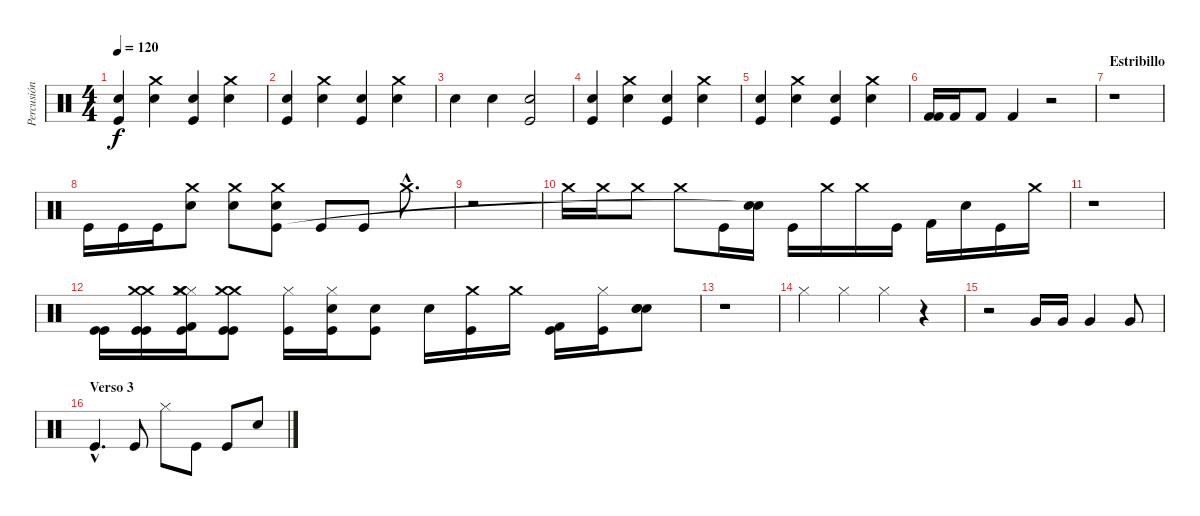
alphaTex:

\track ("Percusión" "Percusión") {instrument percussion}
\staff {score}
\articulation defaults
\ts (4 4)
\tempo 120
\clef neutral
\ks c
("Snare (hit) 2" "Kick (hit)").4{dy f} ("Snare (hit) 2" "Crash medium (hit)").4 ("Snare (hit) 2" "Kick (hit)").4 ("Snare (hit) 2" "Crash medium (hit)").4 |
("Snare (hit) 2" "Kick (hit)").4 ("Snare (hit) 2" "Crash medium (hit)").4 ("Snare (hit) 2" "Kick (hit)").4 ("Snare (hit) 2" "Crash medium (hit)").4 |
"Snare (hit) 2".4 "Snare (hit) 2".4 ("Snare (hit) 2" "Kick (hit)").2 |
("Snare (hit) 2" "Kick (hit)").4 ("Snare (hit) 2" "Crash medium (hit)").4 ("Snare (hit) 2" "Kick (hit)").4 ("Snare (hit) 2" "Crash medium (hit)").4 |
("Snare (hit) 2" "Kick (hit)").4 ("Snare (hit) 2" "Crash medium (hit)").4 ("Snare (hit) 2" "Kick (hit)").4 ("Snare (hit) 2" "Crash medium (hit)").4 |
("Kick (hit) 2" "Kick (hit) 2").16 "Kick (hit) 2".16 "Kick (hit) 2".8 "Kick (hit) 2".4 r.2 |
\section ("" "Estribillo")
r.1 |
"Kick (hit)".16 "Kick (hit)".16 "Kick (hit)".16 ("Crash medium (hit)" "Snare (hit) 2").8 ("Crash medium (hit)" "Snare (hit) 2").8 ("Crash medium (hit)" "Kick (hit)" "Snare (hit) 2").8 "Kick (hit)".8 "Kick (hit)".8 "Crash medium (hit)"{hac}.8{d} |
r.1 |
"Crash medium (hit)".16 "Crash medium (hit)".16 "Crash medium (hit)".8 "Crash medium (hit)".8 "Kick (hit)".16 ("Snare (hit) 2" "Snare (hit)"{t}).16 "Kick (hit)".16 "Crash medium (hit)".16 "Crash medium (hit)".16 "Kick (hit)".16 "Kick (hit) 2".16 "Snare (hit) 2".16 "Kick (hit)".16 "Crash medium (hit)".16 |
r.1 |
("Kick (hit)" "Kick (hit)").16 ("Kick (hit)" "Kick (hit)" "Crash medium (hit)" "Crash medium (hit)").16 ("Kick (hit)" "Hi-Hat (closed)" "Crash medium (hit)" "Kick (hit) 2" "Crash medium (hit)" "Hi-Hat (closed)").16 ("Kick (hit)" "Kick (hit)" "Crash medium (hit)" "Crash medium (hit)").8 ("Kick (hit)" "Hi-Hat (closed)").16 ("Kick (hit)" "Hi-Hat (closed)" "Snare (hit) 2").16 ("Kick (hit)" "Electric Snare (hit)").8 "Electric Snare (hit)".16 ("Crash medium (hit)" "Kick (hit)").16 "Crash medium (hit)".16 ("Kick (hit)" "Kick (hit) 2").16 ("Hi-Hat (closed)" "Kick (hit)").16 ("Snare (hit) 2" "Snare (hit) 2" "Snare (hit) 2").8 |
r.1 |
"Hi-Hat (closed)".4 "Hi-Hat (closed)".4 "Hi-Hat (closed)".4 r.4 |
r.2 "Very Low Tom (hit)".16 "Very Low Tom (hit)".16 "Very Low Tom (hit)".4 "Very Low Tom (hit)".8 |
\section ("" "Verso 3")
"Kick (hit)"{hac}.4{d} "Kick (hit)".8 "Hi-Hat (closed)".8 "Kick (hit)".8 "Kick (hit)".8 "Snare (hit) 2".8
